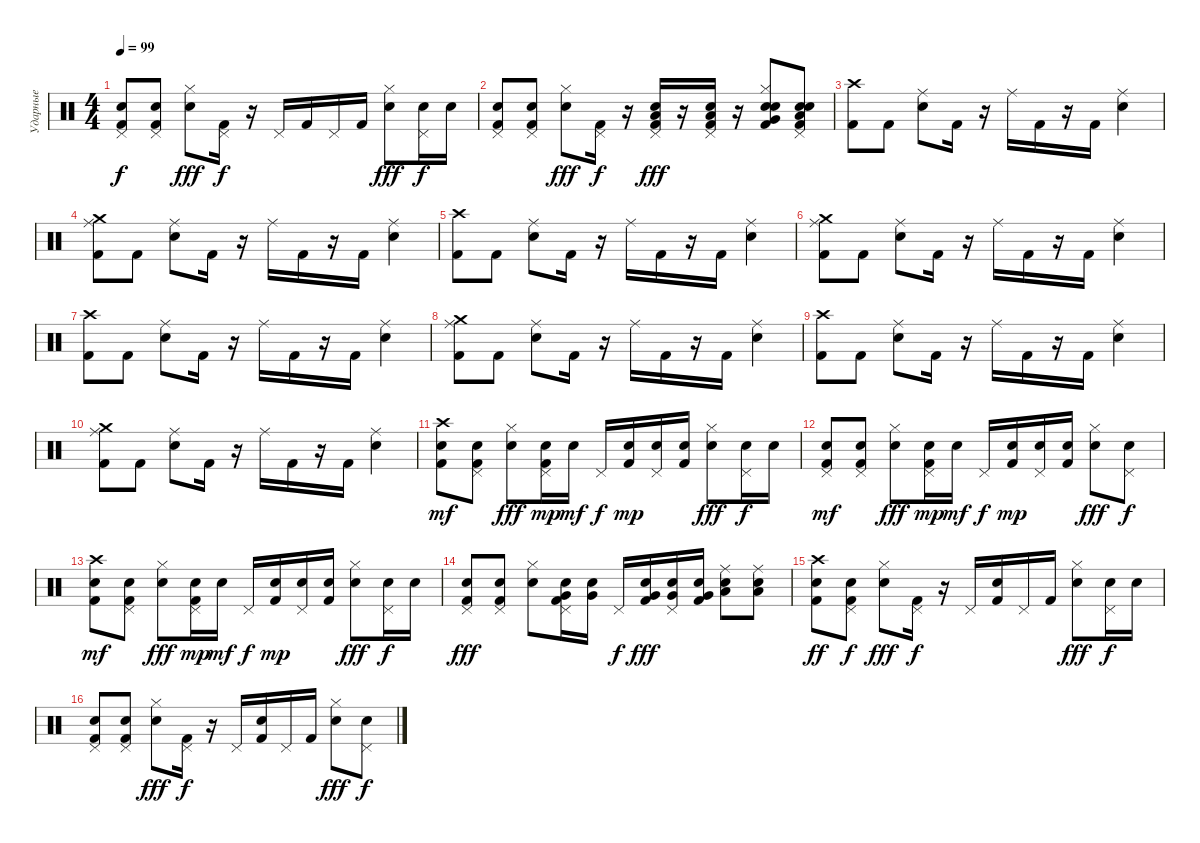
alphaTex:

\track ("Ударные" "Ударные") {instrument percussion}
\staff {score}
\articulation defaults
\ts (4 4)
\tempo 99
\clef neutral
\ks c
("Pedal Hi-Hat (hit)" "Snare (hit) 2" "Kick (hit) 2").8{dy f} ("Pedal Hi-Hat (hit)" "Snare (hit) 2" "Kick (hit) 2").8 ("Hi-Hat (closed)" "Snare (hit) 2").8{dy fff} ("Pedal Hi-Hat (hit)" "Kick (hit) 2").16{dy f} r.16 "Pedal Hi-Hat (hit)".16 "Kick (hit) 2".16 "Pedal Hi-Hat (hit)".16 "Kick (hit) 2".16 ("Hi-Hat (closed)" "Snare (hit) 2").8{dy fff} ("Pedal Hi-Hat (hit)" "Snare (hit) 2").16{dy f} "Snare (hit) 2".16 |
("Pedal Hi-Hat (hit)" "Snare (hit) 2" "Kick (hit) 2").8 ("Pedal Hi-Hat (hit)" "Snare (hit) 2" "Kick (hit) 2").8 ("Hi-Hat (closed)" "Snare (hit) 2").8{dy fff} ("Pedal Hi-Hat (hit)" "Kick (hit) 2").16{dy f} r.16 ("Pedal Hi-Hat (hit)" "Kick (hit) 2" "Low Floor Tom (hit)" "Snare (hit) 2").16{dy fff} r.16 ("Pedal Hi-Hat (hit)" "Kick (hit) 2" "Low Floor Tom (hit)" "Snare (hit) 2").16 r.16 ("Hi-Hat (closed)" "Kick (hit) 2" "Snare (hit) 2" "Very Low Tom (hit)" "Snare (hit) 2").8 ("Pedal Hi-Hat (hit)" "Kick (hit) 2" "Snare (hit) 2" "Low Floor Tom (hit)" "Snare (hit) 2").8 |
("Crash high (hit)" "Kick (hit) 2").8 "Kick (hit) 2".8 ("Ride (middle)" "Snare (hit) 2").8 "Kick (hit) 2".16 r.16 "Ride (middle)".16 "Kick (hit) 2".16 r.16 "Kick (hit) 2".16 ("Ride (middle)" "Snare (hit) 2").4 |
("Ride (middle)" "Crash medium (hit)" "Kick (hit) 2").8 "Kick (hit) 2".8 ("Ride (middle)" "Snare (hit) 2").8 "Kick (hit) 2".16 r.16 "Ride (middle)".16 "Kick (hit) 2".16 r.16 "Kick (hit) 2".16 ("Ride (middle)" "Snare (hit) 2").4 |
("Crash high (hit)" "Kick (hit) 2").8 "Kick (hit) 2".8 ("Ride (middle)" "Snare (hit) 2").8 "Kick (hit) 2".16 r.16 "Ride (middle)".16 "Kick (hit) 2".16 r.16 "Kick (hit) 2".16 ("Ride (middle)" "Snare (hit) 2").4 |
("Ride (middle)" "Crash medium (hit)" "Kick (hit) 2").8 "Kick (hit) 2".8 ("Ride (middle)" "Snare (hit) 2").8 "Kick (hit) 2".16 r.16 "Ride (middle)".16 "Kick (hit) 2".16 r.16 "Kick (hit) 2".16 ("Ride (middle)" "Snare (hit) 2").4 |
("Crash high (hit)" "Kick (hit) 2").8 "Kick (hit) 2".8 ("Ride (middle)" "Snare (hit) 2").8 "Kick (hit) 2".16 r.16 "Ride (middle)".16 "Kick (hit) 2".16 r.16 "Kick (hit) 2".16 ("Ride (middle)" "Snare (hit) 2").4 |
("Ride (middle)" "Crash medium (hit)" "Kick (hit) 2").8 "Kick (hit) 2".8 ("Ride (middle)" "Snare (hit) 2").8 "Kick (hit) 2".16 r.16 "Ride (middle)".16 "Kick (hit) 2".16 r.16 "Kick (hit) 2".16 ("Ride (middle)" "Snare (hit) 2").4 |
("Crash high (hit)" "Kick (hit) 2").8 "Kick (hit) 2".8 ("Ride (middle)" "Snare (hit) 2").8 "Kick (hit) 2".16 r.16 "Ride (middle)".16 "Kick (hit) 2".16 r.16 "Kick (hit) 2".16 ("Ride (middle)" "Snare (hit) 2").4 |
("Ride (middle)" "Crash medium (hit)" "Kick (hit) 2").8 "Kick (hit) 2".8 ("Ride (middle)" "Snare (hit) 2").8 "Kick (hit) 2".16 r.16 "Ride (middle)".16 "Kick (hit) 2".16 r.16 "Kick (hit) 2".16 ("Ride (middle)" "Snare (hit) 2").4 |
("Crash high (hit)" "Snare (hit) 2" "Kick (hit) 2").8{dy mf} ("Pedal Hi-Hat (hit)" "Snare (hit) 2" "Kick (hit) 2").8 ("Hi-Hat (closed)" "Snare (hit) 2").8{dy fff} ("Pedal Hi-Hat (hit)" "Snare (hit) 2" "Kick (hit) 2").16{dy mp} "Snare (hit) 2".16{dy mf} "Pedal Hi-Hat (hit)".16{dy f} ("Snare (hit) 2" "Kick (hit) 2").16{dy mp} ("Pedal Hi-Hat (hit)" "Snare (hit) 2").16 ("Snare (hit) 2" "Kick (hit) 2").16 ("Hi-Hat (closed)" "Snare (hit) 2").8{dy fff} ("Pedal Hi-Hat (hit)" "Snare (hit) 2").16{dy f} "Snare (hit) 2".16 |
("Pedal Hi-Hat (hit)" "Snare (hit) 2" "Kick (hit) 2").8{dy mf} ("Pedal Hi-Hat (hit)" "Snare (hit) 2" "Kick (hit) 2").8 ("Hi-Hat (closed)" "Snare (hit) 2").8{dy fff} ("Pedal Hi-Hat (hit)" "Snare (hit) 2" "Kick (hit) 2").16{dy mp} "Snare (hit) 2".16{dy mf} "Pedal Hi-Hat (hit)".16{dy f} ("Snare (hit) 2" "Kick (hit) 2").16{dy mp} ("Pedal Hi-Hat (hit)" "Snare (hit) 2").16 ("Snare (hit) 2" "Kick (hit) 2").16 ("Hi-Hat (closed)" "Snare (hit) 2").8{dy fff} ("Pedal Hi-Hat (hit)" "Snare (hit) 2").8{dy f} |
("Crash high (hit)" "Snare (hit) 2" "Kick (hit) 2").8{dy mf} ("Pedal Hi-Hat (hit)" "Snare (hit) 2" "Kick (hit) 2").8 ("Hi-Hat (closed)" "Snare (hit) 2").8{dy fff} ("Pedal Hi-Hat (hit)" "Snare (hit) 2" "Kick (hit) 2").16{dy mp} "Snare (hit) 2".16{dy mf} "Pedal Hi-Hat (hit)".16{dy f} ("Snare (hit) 2" "Kick (hit) 2").16{dy mp} ("Pedal Hi-Hat (hit)" "Snare (hit) 2").16 ("Snare (hit) 2" "Kick (hit) 2").16 ("Hi-Hat (closed)" "Snare (hit) 2").8{dy fff} ("Pedal Hi-Hat (hit)" "Snare (hit) 2").16{dy f} "Snare (hit) 2".16 |
("Pedal Hi-Hat (hit)" "Snare (hit) 2" "Kick (hit) 2").8{dy fff} ("Pedal Hi-Hat (hit)" "Snare (hit) 2" "Kick (hit) 2").8 ("Hi-Hat (closed)" "Snare (hit) 2").8 ("Pedal Hi-Hat (hit)" "Snare (hit) 2" "Very Low Tom (hit)" "Kick (hit) 2").16 ("Snare (hit) 2" "Very Low Tom (hit)").16 "Pedal Hi-Hat (hit)".16{dy f} ("Snare (hit) 2" "Very Low Tom (hit)" "Kick (hit) 2").16{dy fff} ("Pedal Hi-Hat (hit)" "Snare (hit) 2" "Very Low Tom (hit)").16 ("Snare (hit) 2" "Very Low Tom (hit)" "Kick (hit) 2").16 ("Ride (middle)" "Snare (hit) 2" "Low Floor Tom (hit)").8 ("Ride (middle)" "Snare (hit) 2" "Low Floor Tom (hit)").8 |
("Crash high (hit)" "Snare (hit) 2" "Kick (hit) 2").8{dy ff} ("Pedal Hi-Hat (hit)" "Snare (hit) 2" "Kick (hit) 2").8{dy f} ("Hi-Hat (closed)" "Snare (hit) 2").8{dy fff} ("Pedal Hi-Hat (hit)" "Kick (hit) 2").16{dy f} r.16 "Pedal Hi-Hat (hit)".16 ("Snare (hit) 2" "Kick (hit) 2").16 "Pedal Hi-Hat (hit)".16 "Kick (hit) 2".16 ("Hi-Hat (closed)" "Snare (hit) 2").8{dy fff} ("Pedal Hi-Hat (hit)" "Snare (hit) 2").16{dy f} "Snare (hit) 2".16 |
("Pedal Hi-Hat (hit)" "Snare (hit) 2" "Kick (hit) 2").8 ("Pedal Hi-Hat (hit)" "Snare (hit) 2" "Kick (hit) 2").8 ("Hi-Hat (closed)" "Snare (hit) 2").8{dy fff} ("Pedal Hi-Hat (hit)" "Kick (hit) 2").16{dy f} r.16 "Pedal Hi-Hat (hit)".16 ("Snare (hit) 2" "Kick (hit) 2").16 "Pedal Hi-Hat (hit)".16 "Kick (hit) 2".16 ("Hi-Hat (closed)" "Snare (hit) 2").8{dy fff} ("Pedal Hi-Hat (hit)" "Snare (hit) 2").8{dy f}
